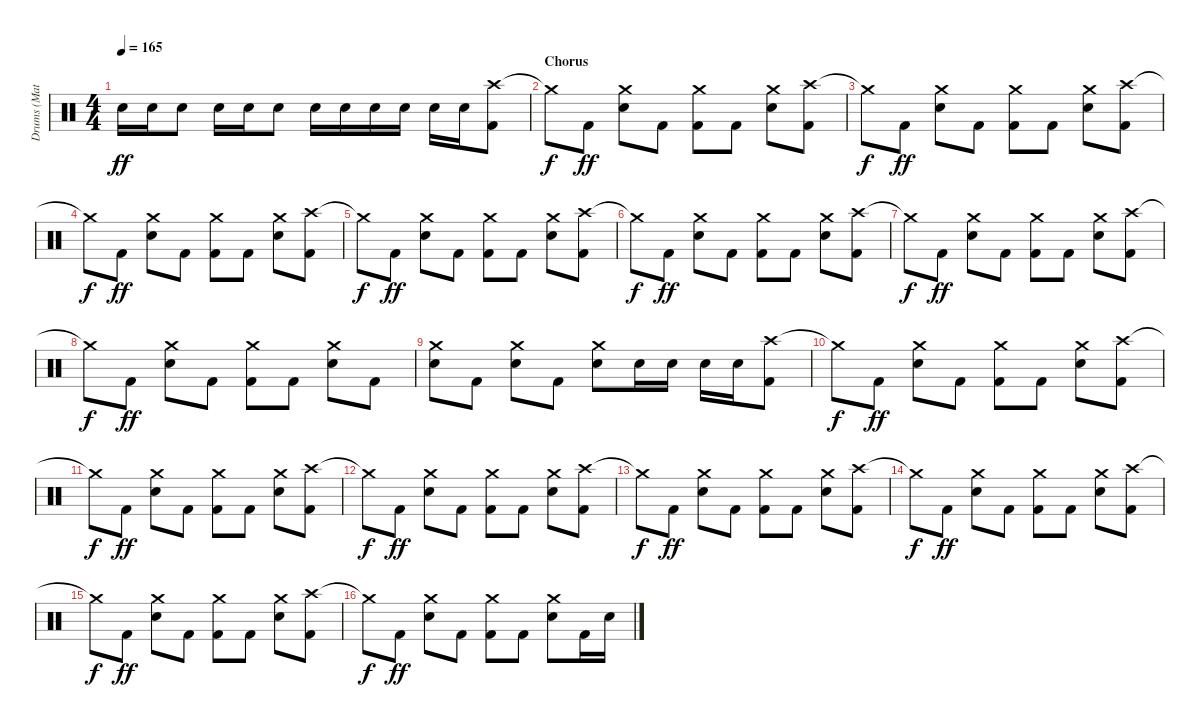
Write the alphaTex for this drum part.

\track ("Drums (Matt)" "Drums (Mat") {instrument percussion}
\staff {score}
\articulation defaults
\ts (4 4)
\tempo 165
\clef neutral
\ks c "Snare (hit) 2".16{dy ff} "Snare (hit) 2".16 "Snare (hit) 2".8 "Snare (hit) 2".16 "Snare (hit) 2".16 "Snare (hit) 2".8 "Snare (hit) 2".16 "Snare (hit) 2".16 "Snare (hit) 2".16 "Snare (hit) 2".16 "Snare (hit) 2".16 "Snare (hit) 2".16
("Crash high (hit)" "Kick (hit) 2").8 |
\section ("" "Chorus")
"Crash medium (hit)"{t}.8{dy f} "Kick (hit) 2".8{dy ff} ("Crash medium (hit)" "Snare (hit) 2").8 "Kick (hit) 2".8 ("Crash medium (hit)" "Kick (hit) 2").8 "Kick (hit) 2".8 ("Crash medium (hit)" "Snare (hit) 2").8 ("Crash high (hit)" "Kick (hit) 2").8 |
"Crash medium (hit)"{t}.8{dy f} "Kick (hit) 2".8{dy ff} ("Crash medium (hit)" "Snare (hit) 2").8 "Kick (hit) 2".8 ("Crash medium (hit)" "Kick (hit) 2").8 "Kick (hit) 2".8 ("Crash medium (hit)" "Snare (hit) 2").8 ("Crash high (hit)" "Kick (hit) 2").8 |
"Crash medium (hit)"{t}.8{dy f} "Kick (hit) 2".8{dy ff} ("Crash medium (hit)" "Snare (hit) 2").8 "Kick (hit) 2".8 ("Crash medium (hit)" "Kick (hit) 2").8 "Kick (hit) 2".8 ("Crash medium (hit)" "Snare (hit) 2").8 ("Crash high (hit)" "Kick (hit) 2").8 |
"Crash medium (hit)"{t}.8{dy f} "Kick (hit) 2".8{dy ff} ("Crash medium (hit)" "Snare (hit) 2").8 "Kick (hit) 2".8 ("Crash medium (hit)" "Kick (hit) 2").8 "Kick (hit) 2".8 ("Crash medium (hit)" "Snare (hit) 2").8 ("Crash high (hit)" "Kick (hit) 2").8 |
"Crash medium (hit)"{t}.8{dy f} "Kick (hit) 2".8{dy ff} ("Crash medium (hit)" "Snare (hit) 2").8 "Kick (hit) 2".8 ("Crash medium (hit)" "Kick (hit) 2").8 "Kick (hit) 2".8 ("Crash medium (hit)" "Snare (hit) 2").8 ("Crash high (hit)" "Kick (hit) 2").8 |
"Crash medium (hit)"{t}.8{dy f} "Kick (hit) 2".8{dy ff} ("Crash medium (hit)" "Snare (hit) 2").8 "Kick (hit) 2".8 ("Crash medium (hit)" "Kick (hit) 2").8 "Kick (hit) 2".8 ("Crash medium (hit)" "Snare (hit) 2").8 ("Crash high (hit)" "Kick (hit) 2").8 |
"Crash medium (hit)"{t}.8{dy f} "Kick (hit) 2".8{dy ff} ("Crash medium (hit)" "Snare (hit) 2").8 "Kick (hit) 2".8 ("Crash medium (hit)" "Kick (hit) 2").8 "Kick (hit) 2".8 ("Crash medium (hit)" "Snare (hit) 2").8 "Kick (hit) 2".8 |
("Crash medium (hit)" "Snare (hit) 2").8 "Kick (hit) 2".8 ("Crash medium (hit)" "Snare (hit) 2").8 "Kick (hit) 2".8 ("Crash medium (hit)" "Snare (hit) 2").8 "Snare (hit) 2".16 "Snare (hit) 2".16 "Snare (hit) 2".16 "Snare (hit) 2".16 ("Crash high (hit)" "Kick (hit) 2").8 |
"Crash medium (hit)"{t}.8{dy f} "Kick (hit) 2".8{dy ff} ("Crash medium (hit)" "Snare (hit) 2").8 "Kick (hit) 2".8 ("Crash medium (hit)" "Kick (hit) 2").8 "Kick (hit) 2".8 ("Crash medium (hit)" "Snare (hit) 2").8 ("Crash high (hit)" "Kick (hit) 2").8 |
"Crash medium (hit)"{t}.8{dy f} "Kick (hit) 2".8{dy ff} ("Crash medium (hit)" "Snare (hit) 2").8 "Kick (hit) 2".8 ("Crash medium (hit)" "Kick (hit) 2").8 "Kick (hit) 2".8 ("Crash medium (hit)" "Snare (hit) 2").8 ("Crash high (hit)" "Kick (hit) 2").8 |
"Crash medium (hit)"{t}.8{dy f} "Kick (hit) 2".8{dy ff} ("Crash medium (hit)" "Snare (hit) 2").8 "Kick (hit) 2".8 ("Crash medium (hit)" "Kick (hit) 2").8 "Kick (hit) 2".8 ("Crash medium (hit)" "Snare (hit) 2").8 ("Crash high (hit)" "Kick (hit) 2").8 |
"Crash medium (hit)"{t}.8{dy f} "Kick (hit) 2".8{dy ff} ("Crash medium (hit)" "Snare (hit) 2").8 "Kick (hit) 2".8 ("Crash medium (hit)" "Kick (hit) 2").8 "Kick (hit) 2".8 ("Crash medium (hit)" "Snare (hit) 2").8 ("Crash high (hit)" "Kick (hit) 2").8 |
"Crash medium (hit)"{t}.8{dy f} "Kick (hit) 2".8{dy ff} ("Crash medium (hit)" "Snare (hit) 2").8 "Kick (hit) 2".8 ("Crash medium (hit)" "Kick (hit) 2").8 "Kick (hit) 2".8 ("Crash medium (hit)" "Snare (hit) 2").8 ("Crash high (hit)" "Kick (hit) 2").8 |
"Crash medium (hit)"{t}.8{dy f} "Kick (hit) 2".8{dy ff} ("Crash medium (hit)" "Snare (hit) 2").8 "Kick (hit) 2".8 ("Crash medium (hit)" "Kick (hit) 2").8 "Kick (hit) 2".8 ("Crash medium (hit)" "Snare (hit) 2").8 ("Crash high (hit)" "Kick (hit) 2").8 |
"Crash medium (hit)"{t}.8{dy f} "Kick (hit) 2".8{dy ff} ("Crash medium (hit)" "Snare (hit) 2").8 "Kick (hit) 2".8 ("Crash medium (hit)" "Kick (hit) 2").8 "Kick (hit) 2".8 ("Crash medium (hit)" "Snare (hit) 2").8 "Kick (hit) 2".16 "Snare (hit) 2".16
